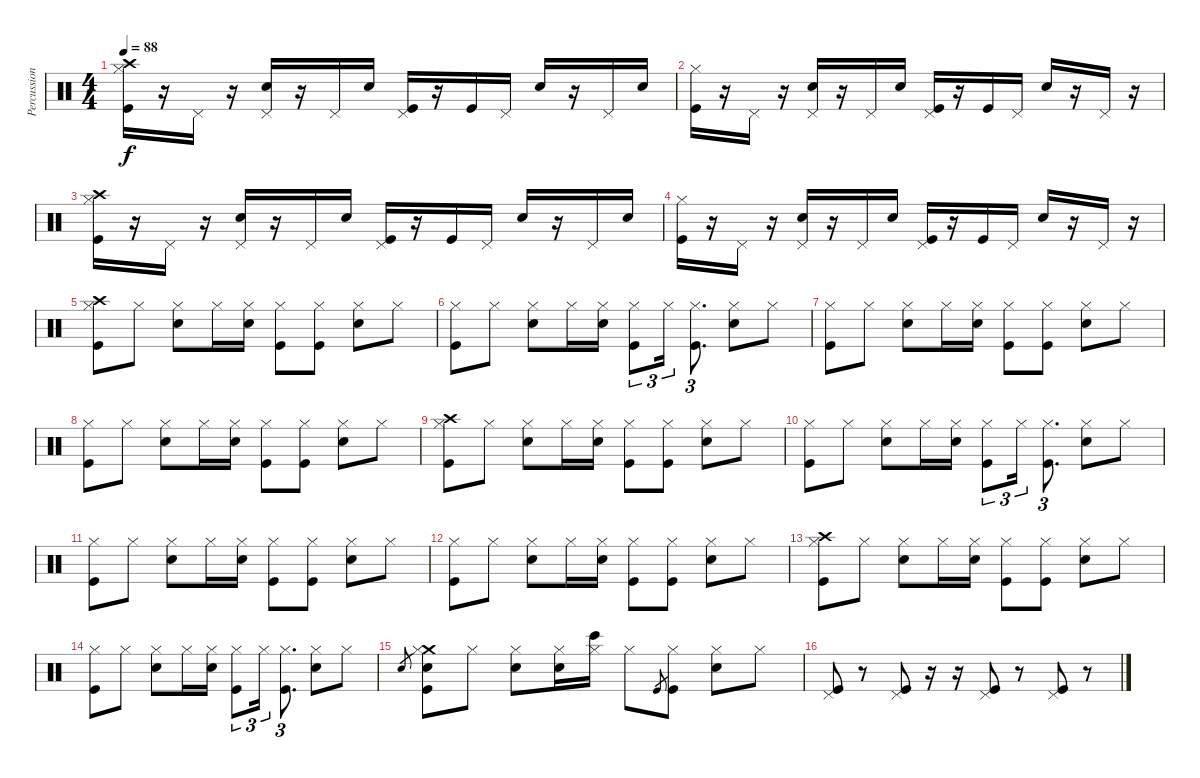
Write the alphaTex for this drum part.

\track ("Percussions" "Percussion") {instrument percussion}
\staff {score}
\articulation defaults
\ts (4 4)
\tempo 88
\clef neutral
\ks c
("Crash high (hit)" "Hi-Hat (closed)" "Kick (hit)").16{dy f} r.16 "Pedal Hi-Hat (hit)".16 r.16 ("Electric Snare (hit)" "Pedal Hi-Hat (hit)").16 r.16 "Pedal Hi-Hat (hit)".16 "Electric Snare (hit)".16 ("Kick (hit)" "Pedal Hi-Hat (hit)").16 r.16 "Kick (hit)".16 "Pedal Hi-Hat (hit)".16 "Electric Snare (hit)".16 r.16 "Pedal Hi-Hat (hit)".16 "Electric Snare (hit)".16 |
("Hi-Hat (closed)" "Kick (hit)").16 r.16 "Pedal Hi-Hat (hit)".16 r.16 ("Electric Snare (hit)" "Pedal Hi-Hat (hit)").16 r.16 "Pedal Hi-Hat (hit)".16 "Electric Snare (hit)".16 ("Kick (hit)" "Pedal Hi-Hat (hit)").16 r.16 "Kick (hit)".16 "Pedal Hi-Hat (hit)".16 "Electric Snare (hit)".16 r.16 "Pedal Hi-Hat (hit)".16 r.16 |
("Crash high (hit)" "Hi-Hat (closed)" "Kick (hit)").16 r.16 "Pedal Hi-Hat (hit)".16 r.16 ("Electric Snare (hit)" "Pedal Hi-Hat (hit)").16 r.16 "Pedal Hi-Hat (hit)".16 "Electric Snare (hit)".16 ("Kick (hit)" "Pedal Hi-Hat (hit)").16 r.16 "Kick (hit)".16 "Pedal Hi-Hat (hit)".16 "Electric Snare (hit)".16 r.16 "Pedal Hi-Hat (hit)".16 "Electric Snare (hit)".16 |
("Hi-Hat (closed)" "Kick (hit)").16 r.16 "Pedal Hi-Hat (hit)".16 r.16 ("Electric Snare (hit)" "Pedal Hi-Hat (hit)").16 r.16 "Pedal Hi-Hat (hit)".16 "Electric Snare (hit)".16 ("Kick (hit)" "Pedal Hi-Hat (hit)").16 r.16 "Kick (hit)".16 "Pedal Hi-Hat (hit)".16 "Electric Snare (hit)".16 r.16 "Pedal Hi-Hat (hit)".16 r.16 |
("Crash high (hit)" "Hi-Hat (closed)" "Kick (hit)").8 "Hi-Hat (closed)".8 ("Electric Snare (hit)" "Hi-Hat (closed)").8 "Hi-Hat (closed)".16 ("Electric Snare (hit)" "Hi-Hat (closed)").16 ("Hi-Hat (closed)" "Kick (hit)").8 ("Hi-Hat (closed)" "Kick (hit)").8 ("Electric Snare (hit)" "Hi-Hat (closed)").8 "Hi-Hat (closed)".8 |
("Hi-Hat (closed)" "Kick (hit)").8 "Hi-Hat (closed)".8 ("Electric Snare (hit)" "Hi-Hat (closed)").8 "Hi-Hat (closed)".16 ("Electric Snare (hit)" "Hi-Hat (closed)").16 ("Hi-Hat (closed)" "Kick (hit)").8{tu (3 2)} "Hi-Hat (closed)".16{tu (3 2)} ("Hi-Hat (closed)" "Kick (hit)").8{d tu (3 2)} ("Electric Snare (hit)" "Hi-Hat (closed)").8 "Hi-Hat (closed)".8 |
("Hi-Hat (closed)" "Kick (hit)").8 "Hi-Hat (closed)".8 ("Electric Snare (hit)" "Hi-Hat (closed)").8 "Hi-Hat (closed)".16 ("Electric Snare (hit)" "Hi-Hat (closed)").16 ("Hi-Hat (closed)" "Kick (hit)").8 ("Hi-Hat (closed)" "Kick (hit)").8 ("Electric Snare (hit)" "Hi-Hat (closed)").8 "Hi-Hat (closed)".8 |
("Hi-Hat (closed)" "Kick (hit)").8 "Hi-Hat (closed)".8 ("Electric Snare (hit)" "Hi-Hat (closed)").8 "Hi-Hat (closed)".16 ("Electric Snare (hit)" "Hi-Hat (closed)").16 ("Hi-Hat (closed)" "Kick (hit)").8 ("Hi-Hat (closed)" "Kick (hit)").8 ("Electric Snare (hit)" "Hi-Hat (closed)").8 "Hi-Hat (closed)".8 |
("Crash high (hit)" "Hi-Hat (closed)" "Kick (hit)").8 "Hi-Hat (closed)".8 ("Electric Snare (hit)" "Hi-Hat (closed)").8 "Hi-Hat (closed)".16 ("Electric Snare (hit)" "Hi-Hat (closed)").16 ("Hi-Hat (closed)" "Kick (hit)").8 ("Hi-Hat (closed)" "Kick (hit)").8 ("Electric Snare (hit)" "Hi-Hat (closed)").8 "Hi-Hat (closed)".8 |
("Hi-Hat (closed)" "Kick (hit)").8 "Hi-Hat (closed)".8 ("Electric Snare (hit)" "Hi-Hat (closed)").8 "Hi-Hat (closed)".16 ("Electric Snare (hit)" "Hi-Hat (closed)").16 ("Hi-Hat (closed)" "Kick (hit)").8{tu (3 2)} "Hi-Hat (closed)".16{tu (3 2)} ("Hi-Hat (closed)" "Kick (hit)").8{d tu (3 2)} ("Electric Snare (hit)" "Hi-Hat (closed)").8 "Hi-Hat (closed)".8 |
("Hi-Hat (closed)" "Kick (hit)").8 "Hi-Hat (closed)".8 ("Electric Snare (hit)" "Hi-Hat (closed)").8 "Hi-Hat (closed)".16 ("Electric Snare (hit)" "Hi-Hat (closed)").16 ("Hi-Hat (closed)" "Kick (hit)").8 ("Hi-Hat (closed)" "Kick (hit)").8 ("Electric Snare (hit)" "Hi-Hat (closed)").8 "Hi-Hat (closed)".8 |
("Hi-Hat (closed)" "Kick (hit)").8 "Hi-Hat (closed)".8 ("Electric Snare (hit)" "Hi-Hat (closed)").8 "Hi-Hat (closed)".16 ("Electric Snare (hit)" "Hi-Hat (closed)").16 ("Hi-Hat (closed)" "Kick (hit)").8 ("Hi-Hat (closed)" "Kick (hit)").8 ("Electric Snare (hit)" "Hi-Hat (closed)").8 "Hi-Hat (closed)".8 |
("Crash high (hit)" "Hi-Hat (closed)" "Kick (hit)").8 "Hi-Hat (closed)".8 ("Electric Snare (hit)" "Hi-Hat (closed)").8 "Hi-Hat (closed)".16 ("Electric Snare (hit)" "Hi-Hat (closed)").16 ("Hi-Hat (closed)" "Kick (hit)").8 ("Hi-Hat (closed)" "Kick (hit)").8 ("Electric Snare (hit)" "Hi-Hat (closed)").8 "Hi-Hat (closed)".8 |
("Hi-Hat (closed)" "Kick (hit)").8 "Hi-Hat (closed)".8 ("Electric Snare (hit)" "Hi-Hat (closed)").8 "Hi-Hat (closed)".16 ("Electric Snare (hit)" "Hi-Hat (closed)").16 ("Hi-Hat (closed)" "Kick (hit)").8{tu (3 2)} "Hi-Hat (closed)".16{tu (3 2)} ("Hi-Hat (closed)" "Kick (hit)").8{d tu (3 2)} ("Electric Snare (hit)" "Hi-Hat (closed)").8 "Hi-Hat (closed)".8 |
"Electric Snare (hit)".8{gr} ("Crash medium (hit)" "Hi-Hat (closed)" "Electric Snare (hit)" "Kick (hit)").8 "Hi-Hat (closed)".8 ("Electric Snare (hit)" "Hi-Hat (closed)").8 ("Electric Snare (hit)" "Hi-Hat (closed)").16 ("Bongo High (hit)" "Hi-Hat (closed)").16 "Hi-Hat (closed)".8 "Kick (hit)".8{gr} ("Hi-Hat (closed)" "Kick (hit)").8 ("Electric Snare (hit)" "Hi-Hat (closed)").8 "Hi-Hat (closed)".8 |
("Pedal Hi-Hat (hit)" "Kick (hit)").8{volume 15} r.8 ("Pedal Hi-Hat (hit)" "Kick (hit)").8 r.16 r.16 ("Pedal Hi-Hat (hit)" "Kick (hit)").8 r.8 ("Pedal Hi-Hat (hit)" "Kick (hit)").8 r.8
